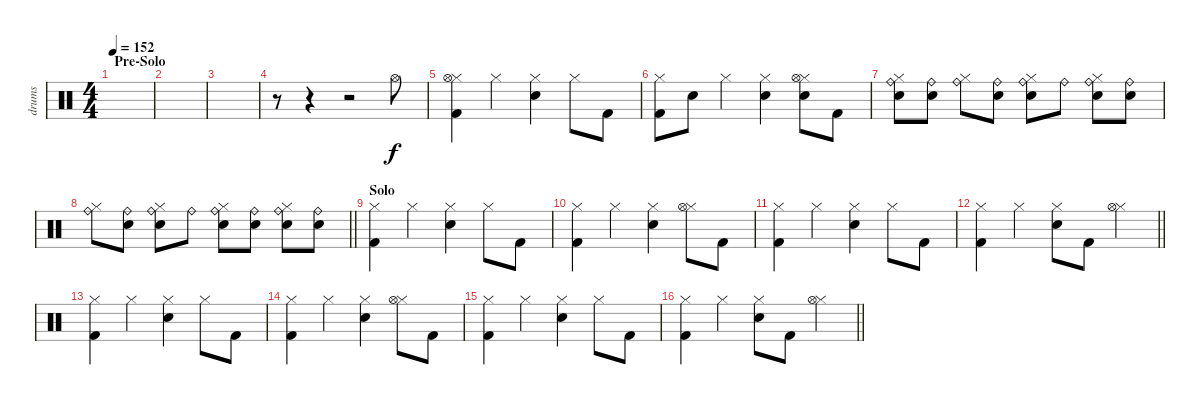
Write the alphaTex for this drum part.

\track ("drums" "drums") {instrument percussion}
\staff {score}
\articulation defaults
\ts (4 4)
\section ("" "Pre-Solo")
\tempo 152
\clef neutral
\ks c
|
|
|
r.8 r.4 r.2 "Hi-Hat (open)".8 |
("Hi-Hat (closed)" "Hi-Hat (open)" "Kick (hit) 2").4 "Hi-Hat (closed)".4 ("Hi-Hat (closed)" "Electric Snare (hit)").4 "Hi-Hat (closed)".8 "Kick (hit) 2".8 |
("Hi-Hat (closed)" "Kick (hit) 2").8 "Electric Snare (hit)".8 "Hi-Hat (closed)".4 ("Hi-Hat (closed)" "Electric Snare (hit)").4 ("Hi-Hat (closed)" "Hi-Hat (open)" "Electric Snare (hit)").8 "Kick (hit) 2".8 |
("Hi-Hat (closed)" "Ride (bell)" "Electric Snare (hit)").8 ("Ride (bell)" "Electric Snare (hit)").8 ("Hi-Hat (closed)" "Ride (bell)").8 ("Ride (bell)" "Electric Snare (hit)").8 ("Hi-Hat (closed)" "Ride (bell)" "Electric Snare (hit)").8 "Ride (bell)".8 ("Hi-Hat (closed)" "Ride (bell)" "Electric Snare (hit)").8 ("Ride (bell)" "Electric Snare (hit)").8 |
\barLineRight lightlight
("Hi-Hat (closed)" "Ride (bell)").8 ("Ride (bell)" "Electric Snare (hit)").8 ("Hi-Hat (closed)" "Ride (bell)" "Electric Snare (hit)").8 "Ride (bell)".8 ("Hi-Hat (closed)" "Ride (bell)" "Electric Snare (hit)").8 ("Ride (bell)" "Electric Snare (hit)").8 ("Hi-Hat (closed)" "Ride (bell)" "Electric Snare (hit)").8 ("Ride (bell)" "Electric Snare (hit)").8 |
\section ("" "Solo")
("Hi-Hat (closed)" "Kick (hit) 2").4 "Hi-Hat (closed)".4 ("Hi-Hat (closed)" "Electric Snare (hit)").4 "Hi-Hat (closed)".8 "Kick (hit) 2".8 |
("Hi-Hat (closed)" "Kick (hit) 2").4 "Hi-Hat (closed)".4 ("Hi-Hat (closed)" "Electric Snare (hit)").4 ("Hi-Hat (closed)" "Hi-Hat (open)").8 "Kick (hit) 2".8 |
("Hi-Hat (closed)" "Kick (hit) 2").4 "Hi-Hat (closed)".4 ("Hi-Hat (closed)" "Electric Snare (hit)").4 "Hi-Hat (closed)".8 "Kick (hit) 2".8 |
\barLineRight lightlight
("Hi-Hat (closed)" "Kick (hit) 2").4 "Hi-Hat (closed)".4 ("Hi-Hat (closed)" "Electric Snare (hit)").8 "Kick (hit) 2".8 ("Hi-Hat (closed)" "Hi-Hat (open)").4 |
("Hi-Hat (closed)" "Kick (hit) 2").4 "Hi-Hat (closed)".4 ("Hi-Hat (closed)" "Electric Snare (hit)").4 "Hi-Hat (closed)".8 "Kick (hit) 2".8 |
("Hi-Hat (closed)" "Kick (hit) 2").4 "Hi-Hat (closed)".4 ("Hi-Hat (closed)" "Electric Snare (hit)").4 ("Hi-Hat (closed)" "Hi-Hat (open)").8 "Kick (hit) 2".8 |
("Hi-Hat (closed)" "Kick (hit) 2").4 "Hi-Hat (closed)".4 ("Hi-Hat (closed)" "Electric Snare (hit)").4 "Hi-Hat (closed)".8 "Kick (hit) 2".8 |
\barLineRight lightlight
("Hi-Hat (closed)" "Kick (hit) 2").4 "Hi-Hat (closed)".4 ("Hi-Hat (closed)" "Electric Snare (hit)").8 "Kick (hit) 2".8 ("Hi-Hat (closed)" "Hi-Hat (open)").4
